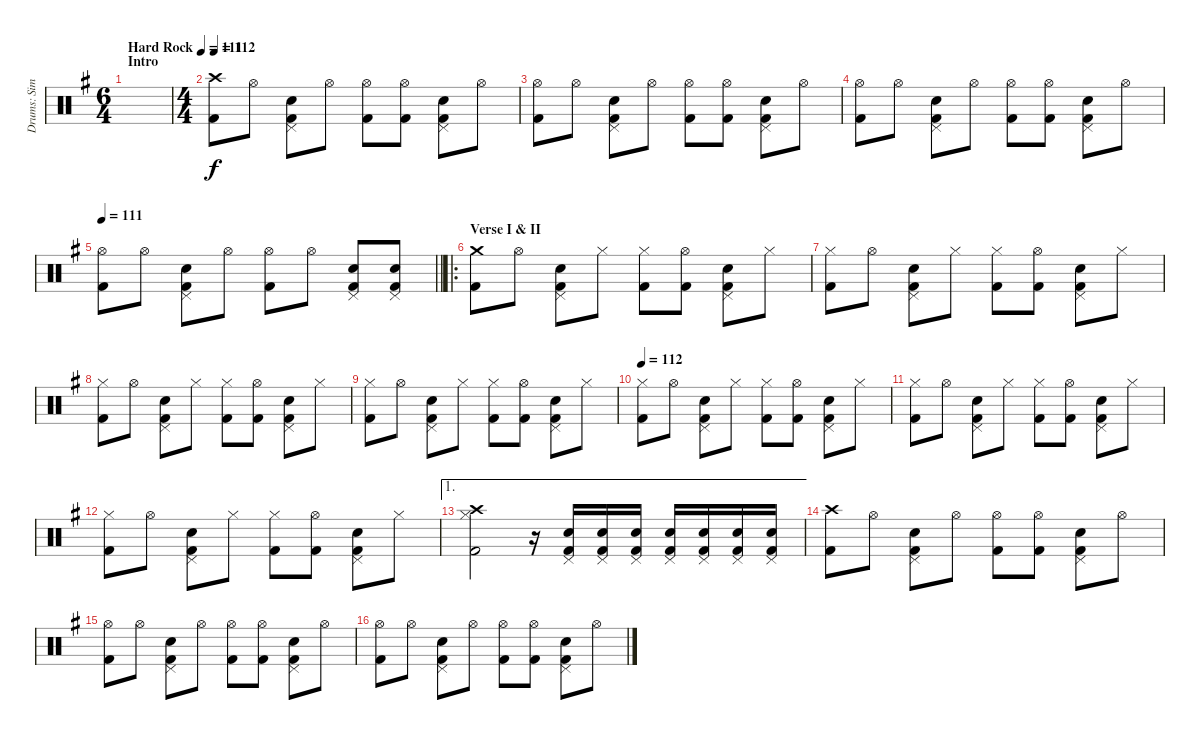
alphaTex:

\track ("Drums: Simon" "Drums: Sim") {instrument percussion}
\staff {score}
\articulation defaults
\ts (6 4)
\section ("" "Intro")
\tempo (111 "Hard Rock")
\clef neutral
\ks g
|
\ts (4 4)
\tempo 112
("Crash high (hit)" "Kick (hit) 2").8 "Hi-Hat (open)".8 ("Pedal Hi-Hat (hit)" "Snare (hit) 2" "Kick (hit) 2").8 "Hi-Hat (open)".8 ("Hi-Hat (open)" "Kick (hit) 2").8 ("Hi-Hat (open)" "Kick (hit) 2").8 ("Pedal Hi-Hat (hit)" "Snare (hit) 2" "Kick (hit) 2").8 "Hi-Hat (open)".8 |
("Hi-Hat (open)" "Kick (hit) 2").8 "Hi-Hat (open)".8 ("Pedal Hi-Hat (hit)" "Snare (hit) 2" "Kick (hit) 2").8 "Hi-Hat (open)".8 ("Hi-Hat (open)" "Kick (hit) 2").8 ("Hi-Hat (open)" "Kick (hit) 2").8 ("Pedal Hi-Hat (hit)" "Snare (hit) 2" "Kick (hit) 2").8 "Hi-Hat (open)".8 |
("Hi-Hat (open)" "Kick (hit) 2").8 "Hi-Hat (open)".8 ("Pedal Hi-Hat (hit)" "Snare (hit) 2" "Kick (hit) 2").8 "Hi-Hat (open)".8 ("Hi-Hat (open)" "Kick (hit) 2").8 ("Hi-Hat (open)" "Kick (hit) 2").8 ("Pedal Hi-Hat (hit)" "Snare (hit) 2" "Kick (hit) 2").8 "Hi-Hat (open)".8 |
\tempo 111
\barLineRight lightlight
("Hi-Hat (open)" "Kick (hit) 2").8 "Hi-Hat (open)".8 ("Pedal Hi-Hat (hit)" "Snare (hit) 2" "Kick (hit) 2").8 "Hi-Hat (open)".8 ("Hi-Hat (open)" "Kick (hit) 2").8 "Hi-Hat (open)".8 ("Pedal Hi-Hat (hit)" "Snare (hit) 2" "Kick (hit) 2").8 ("Pedal Hi-Hat (hit)" "Snare (hit) 2" "Kick (hit) 2").8 |
\ro
\section ("" "Verse I & II")
("Crash medium (hit)" "Kick (hit) 2").8 "Hi-Hat (open)".8 ("Pedal Hi-Hat (hit)" "Snare (hit) 2" "Kick (hit) 2").8 "Hi-Hat (closed)".8 ("Hi-Hat (closed)" "Kick (hit) 2").8 ("Hi-Hat (open)" "Kick (hit) 2").8 ("Pedal Hi-Hat (hit)" "Snare (hit) 2" "Kick (hit) 2").8 "Hi-Hat (closed)".8 |
("Hi-Hat (closed)" "Kick (hit) 2").8 "Hi-Hat (open)".8 ("Pedal Hi-Hat (hit)" "Snare (hit) 2" "Kick (hit) 2").8 "Hi-Hat (closed)".8 ("Hi-Hat (closed)" "Kick (hit) 2").8 ("Hi-Hat (open)" "Kick (hit) 2").8 ("Pedal Hi-Hat (hit)" "Snare (hit) 2" "Kick (hit) 2").8 "Hi-Hat (closed)".8 |
("Hi-Hat (closed)" "Kick (hit) 2").8 "Hi-Hat (open)".8 ("Pedal Hi-Hat (hit)" "Snare (hit) 2" "Kick (hit) 2").8 "Hi-Hat (closed)".8 ("Hi-Hat (closed)" "Kick (hit) 2").8 ("Hi-Hat (open)" "Kick (hit) 2").8 ("Pedal Hi-Hat (hit)" "Snare (hit) 2" "Kick (hit) 2").8 "Hi-Hat (closed)".8 |
("Hi-Hat (closed)" "Kick (hit) 2").8 "Hi-Hat (open)".8 ("Pedal Hi-Hat (hit)" "Snare (hit) 2" "Kick (hit) 2").8 "Hi-Hat (closed)".8 ("Hi-Hat (closed)" "Kick (hit) 2").8 ("Hi-Hat (open)" "Kick (hit) 2").8 ("Pedal Hi-Hat (hit)" "Snare (hit) 2" "Kick (hit) 2").8 "Hi-Hat (closed)".8 |
\tempo 112
("Hi-Hat (closed)" "Kick (hit) 2").8 "Hi-Hat (open)".8 ("Pedal Hi-Hat (hit)" "Snare (hit) 2" "Kick (hit) 2").8 "Hi-Hat (closed)".8 ("Hi-Hat (closed)" "Kick (hit) 2").8 ("Hi-Hat (open)" "Kick (hit) 2").8 ("Pedal Hi-Hat (hit)" "Snare (hit) 2" "Kick (hit) 2").8 "Hi-Hat (closed)".8 |
("Hi-Hat (closed)" "Kick (hit) 2").8 "Hi-Hat (open)".8 ("Pedal Hi-Hat (hit)" "Snare (hit) 2" "Kick (hit) 2").8 "Hi-Hat (closed)".8 ("Hi-Hat (closed)" "Kick (hit) 2").8 ("Hi-Hat (open)" "Kick (hit) 2").8 ("Pedal Hi-Hat (hit)" "Snare (hit) 2" "Kick (hit) 2").8 "Hi-Hat (closed)".8 |
("Hi-Hat (closed)" "Kick (hit) 2").8 "Hi-Hat (open)".8 ("Pedal Hi-Hat (hit)" "Snare (hit) 2" "Kick (hit) 2").8 "Hi-Hat (closed)".8 ("Hi-Hat (closed)" "Kick (hit) 2").8 ("Hi-Hat (open)" "Kick (hit) 2").8 ("Pedal Hi-Hat (hit)" "Snare (hit) 2" "Kick (hit) 2").8 "Hi-Hat (closed)".8 |
\ae 1
("Crash high (hit)" "Hi-Hat (closed)" "Kick (hit) 2").2 r.16 ("Pedal Hi-Hat (hit)" "Snare (hit) 2" "Kick (hit) 2").16 ("Pedal Hi-Hat (hit)" "Snare (hit) 2" "Kick (hit) 2").16 ("Pedal Hi-Hat (hit)" "Snare (hit) 2" "Kick (hit) 2").16 ("Pedal Hi-Hat (hit)" "Snare (hit) 2" "Kick (hit) 2").16 ("Pedal Hi-Hat (hit)" "Snare (hit) 2" "Kick (hit) 2").16 ("Pedal Hi-Hat (hit)" "Snare (hit) 2" "Kick (hit) 2").16 ("Pedal Hi-Hat (hit)" "Snare (hit) 2" "Kick (hit) 2").16 |
("Crash high (hit)" "Kick (hit) 2").8 "Hi-Hat (open)".8 ("Pedal Hi-Hat (hit)" "Snare (hit) 2" "Kick (hit) 2").8 "Hi-Hat (open)".8 ("Hi-Hat (open)" "Kick (hit) 2").8 ("Hi-Hat (open)" "Kick (hit) 2").8 ("Pedal Hi-Hat (hit)" "Snare (hit) 2" "Kick (hit) 2").8 "Hi-Hat (open)".8 |
("Hi-Hat (open)" "Kick (hit) 2").8 "Hi-Hat (open)".8 ("Pedal Hi-Hat (hit)" "Snare (hit) 2" "Kick (hit) 2").8 "Hi-Hat (open)".8 ("Hi-Hat (open)" "Kick (hit) 2").8 ("Hi-Hat (open)" "Kick (hit) 2").8 ("Pedal Hi-Hat (hit)" "Snare (hit) 2" "Kick (hit) 2").8 "Hi-Hat (open)".8 |
("Hi-Hat (open)" "Kick (hit) 2").8 "Hi-Hat (open)".8 ("Pedal Hi-Hat (hit)" "Snare (hit) 2" "Kick (hit) 2").8 "Hi-Hat (open)".8 ("Hi-Hat (open)" "Kick (hit) 2").8 ("Hi-Hat (open)" "Kick (hit) 2").8 ("Pedal Hi-Hat (hit)" "Snare (hit) 2" "Kick (hit) 2").8 "Hi-Hat (open)".8
